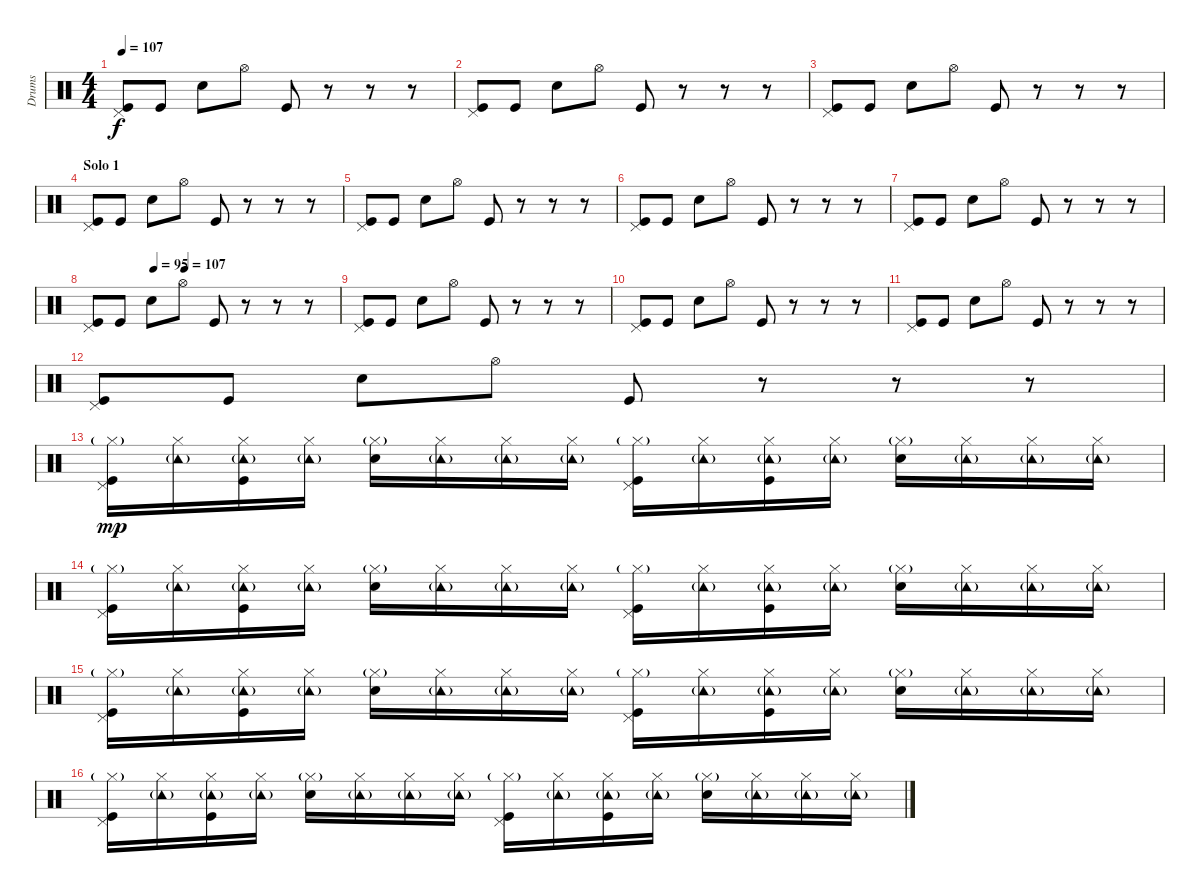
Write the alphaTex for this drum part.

\track ("Drums" "Drums") {instrument percussion}
\staff {score}
\articulation defaults
\ts (4 4)
\section ("" "")
\tempo 107
\clef neutral
\ks c
("Pedal Hi-Hat (hit)" "Kick (hit)").8{dy f volume 16 balance 8} "Kick (hit)".8 "Electric Snare (hit)".8 "Hi-Hat (open)".8 "Kick (hit)".8 r.8 r.8 r.8 |
("Pedal Hi-Hat (hit)" "Kick (hit)").8 "Kick (hit)".8 "Electric Snare (hit)".8 "Hi-Hat (open)".8 "Kick (hit)".8 r.8 r.8 r.8 |
("Pedal Hi-Hat (hit)" "Kick (hit)").8 "Kick (hit)".8 "Electric Snare (hit)".8 "Hi-Hat (open)".8 "Kick (hit)".8 r.8 r.8 r.8 |
\section ("" "Solo 1")
("Pedal Hi-Hat (hit)" "Kick (hit)").8 "Kick (hit)".8 "Electric Snare (hit)".8 "Hi-Hat (open)".8 "Kick (hit)".8 r.8 r.8 r.8 |
("Pedal Hi-Hat (hit)" "Kick (hit)").8 "Kick (hit)".8 "Electric Snare (hit)".8 "Hi-Hat (open)".8 "Kick (hit)".8 r.8 r.8 r.8 |
("Pedal Hi-Hat (hit)" "Kick (hit)").8 "Kick (hit)".8 "Electric Snare (hit)".8 "Hi-Hat (open)".8 "Kick (hit)".8 r.8 r.8 r.8 |
("Pedal Hi-Hat (hit)" "Kick (hit)").8 "Kick (hit)".8 "Electric Snare (hit)".8 "Hi-Hat (open)".8 "Kick (hit)".8 r.8 r.8 r.8 |
\tempo (95 0.25)
\tempo (107 0.375)
("Pedal Hi-Hat (hit)" "Kick (hit)").8 "Kick (hit)".8 "Electric Snare (hit)".8 "Hi-Hat (open)".8 "Kick (hit)".8 r.8 r.8 r.8 |
("Pedal Hi-Hat (hit)" "Kick (hit)").8 "Kick (hit)".8 "Electric Snare (hit)".8 "Hi-Hat (open)".8 "Kick (hit)".8 r.8 r.8 r.8 |
("Pedal Hi-Hat (hit)" "Kick (hit)").8 "Kick (hit)".8 "Electric Snare (hit)".8 "Hi-Hat (open)".8 "Kick (hit)".8 r.8 r.8 r.8 |
("Pedal Hi-Hat (hit)" "Kick (hit)").8 "Kick (hit)".8 "Electric Snare (hit)".8 "Hi-Hat (open)".8 "Kick (hit)".8 r.8 r.8 r.8 |
("Pedal Hi-Hat (hit)" "Kick (hit)").8 "Kick (hit)".8 "Electric Snare (hit)".8 "Hi-Hat (open)".8 "Kick (hit)".8 r.8 r.8 r.8 |
\section ("" "")
("Hi-Hat (closed)"{g} "Pedal Hi-Hat (hit)" "Kick (hit)").16{dy mp volume 11 balance 13} ("Hi-Hat (closed)" "Tambourine (hit)"{g}).16 ("Hi-Hat (closed)" "Tambourine (hit)"{g} "Kick (hit)").16 ("Hi-Hat (closed)" "Tambourine (hit)"{g}).16 ("Hi-Hat (closed)"{g} "Electric Snare (hit)").16 ("Hi-Hat (closed)" "Tambourine (hit)"{g}).16 ("Hi-Hat (closed)" "Tambourine (hit)"{g}).16 ("Hi-Hat (closed)" "Tambourine (hit)"{g}).16 ("Hi-Hat (closed)"{g} "Pedal Hi-Hat (hit)" "Kick (hit)").16 ("Hi-Hat (closed)" "Tambourine (hit)"{g}).16 ("Hi-Hat (closed)" "Tambourine (hit)"{g} "Kick (hit)").16 ("Hi-Hat (closed)" "Tambourine (hit)"{g}).16 ("Hi-Hat (closed)"{g} "Electric Snare (hit)").16 ("Hi-Hat (closed)" "Tambourine (hit)"{g}).16 ("Hi-Hat (closed)" "Tambourine (hit)"{g}).16 ("Hi-Hat (closed)" "Tambourine (hit)"{g}).16 |
("Hi-Hat (closed)"{g} "Pedal Hi-Hat (hit)" "Kick (hit)").16 ("Hi-Hat (closed)" "Tambourine (hit)"{g}).16 ("Hi-Hat (closed)" "Tambourine (hit)"{g} "Kick (hit)").16 ("Hi-Hat (closed)" "Tambourine (hit)"{g}).16 ("Hi-Hat (closed)"{g} "Electric Snare (hit)").16 ("Hi-Hat (closed)" "Tambourine (hit)"{g}).16 ("Hi-Hat (closed)" "Tambourine (hit)"{g}).16 ("Hi-Hat (closed)" "Tambourine (hit)"{g}).16 ("Hi-Hat (closed)"{g} "Pedal Hi-Hat (hit)" "Kick (hit)").16 ("Hi-Hat (closed)" "Tambourine (hit)"{g}).16 ("Hi-Hat (closed)" "Tambourine (hit)"{g} "Kick (hit)").16 ("Hi-Hat (closed)" "Tambourine (hit)"{g}).16 ("Hi-Hat (closed)"{g} "Electric Snare (hit)").16 ("Hi-Hat (closed)" "Tambourine (hit)"{g}).16 ("Hi-Hat (closed)" "Tambourine (hit)"{g}).16 ("Hi-Hat (closed)" "Tambourine (hit)"{g}).16 |
("Hi-Hat (closed)"{g} "Pedal Hi-Hat (hit)" "Kick (hit)").16 ("Hi-Hat (closed)" "Tambourine (hit)"{g}).16 ("Hi-Hat (closed)" "Tambourine (hit)"{g} "Kick (hit)").16 ("Hi-Hat (closed)" "Tambourine (hit)"{g}).16 ("Hi-Hat (closed)"{g} "Electric Snare (hit)").16 ("Hi-Hat (closed)" "Tambourine (hit)"{g}).16 ("Hi-Hat (closed)" "Tambourine (hit)"{g}).16 ("Hi-Hat (closed)" "Tambourine (hit)"{g}).16 ("Hi-Hat (closed)"{g} "Pedal Hi-Hat (hit)" "Kick (hit)").16 ("Hi-Hat (closed)" "Tambourine (hit)"{g}).16 ("Hi-Hat (closed)" "Tambourine (hit)"{g} "Kick (hit)").16 ("Hi-Hat (closed)" "Tambourine (hit)"{g}).16 ("Hi-Hat (closed)"{g} "Electric Snare (hit)").16 ("Hi-Hat (closed)" "Tambourine (hit)"{g}).16 ("Hi-Hat (closed)" "Tambourine (hit)"{g}).16 ("Hi-Hat (closed)" "Tambourine (hit)"{g}).16 |
("Hi-Hat (closed)"{g} "Pedal Hi-Hat (hit)" "Kick (hit)").16 ("Hi-Hat (closed)" "Tambourine (hit)"{g}).16 ("Hi-Hat (closed)" "Tambourine (hit)"{g} "Kick (hit)").16 ("Hi-Hat (closed)" "Tambourine (hit)"{g}).16 ("Hi-Hat (closed)"{g} "Electric Snare (hit)").16 ("Hi-Hat (closed)" "Tambourine (hit)"{g}).16 ("Hi-Hat (closed)" "Tambourine (hit)"{g}).16 ("Hi-Hat (closed)" "Tambourine (hit)"{g}).16 ("Hi-Hat (closed)"{g} "Pedal Hi-Hat (hit)" "Kick (hit)").16 ("Hi-Hat (closed)" "Tambourine (hit)"{g}).16 ("Hi-Hat (closed)" "Tambourine (hit)"{g} "Kick (hit)").16 ("Hi-Hat (closed)" "Tambourine (hit)"{g}).16 ("Hi-Hat (closed)"{g} "Electric Snare (hit)").16 ("Hi-Hat (closed)" "Tambourine (hit)"{g}).16 ("Hi-Hat (closed)" "Tambourine (hit)"{g}).16 ("Hi-Hat (closed)" "Tambourine (hit)"{g}).16
